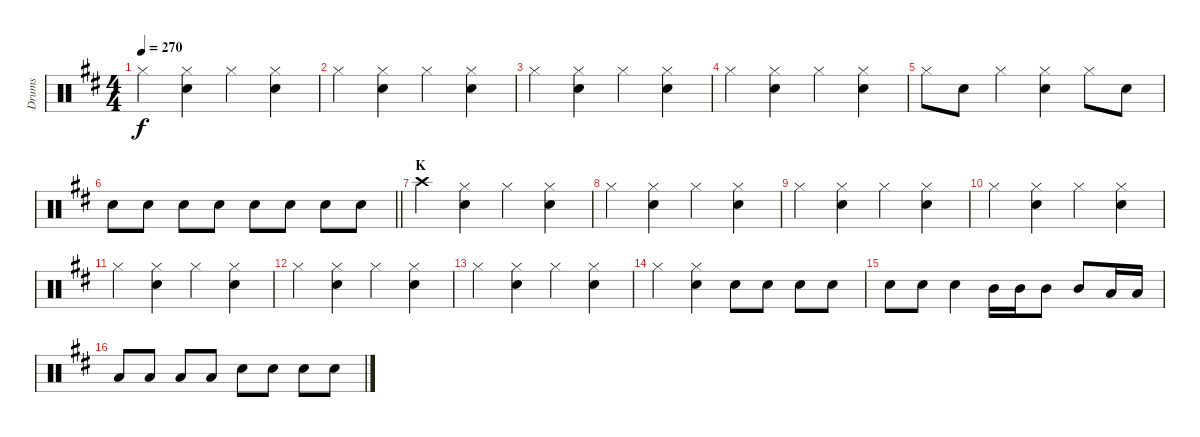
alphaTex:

\track ("Drums" "Drums") {instrument percussion}
\staff {score}
\articulation defaults
\ts (4 4)
\tempo 270
\clef neutral
\ks d "Hi-Hat (closed)".4{dy f}
("Hi-Hat (closed)" "Snare (hit) 2").4 "Hi-Hat (closed)".4 ("Hi-Hat (closed)" "Snare (hit) 2").4 |
"Hi-Hat (closed)".4 ("Hi-Hat (closed)" "Snare (hit) 2").4 "Hi-Hat (closed)".4 ("Hi-Hat (closed)" "Snare (hit) 2").4 |
"Hi-Hat (closed)".4 ("Hi-Hat (closed)" "Snare (hit) 2").4 "Hi-Hat (closed)".4 ("Hi-Hat (closed)" "Snare (hit) 2").4 |
"Hi-Hat (closed)".4 ("Hi-Hat (closed)" "Snare (hit) 2").4 "Hi-Hat (closed)".4 ("Hi-Hat (closed)" "Snare (hit) 2").4 |
"Hi-Hat (closed)".8 "Snare (hit) 2".8 "Hi-Hat (closed)".4 ("Hi-Hat (closed)" "Snare (hit) 2").4 "Hi-Hat (closed)".8 "Snare (hit) 2".8 |
\barLineRight lightlight "Snare (hit) 2".8 "Snare (hit) 2".8 "Snare (hit) 2".8 "Snare (hit) 2".8 "Snare (hit) 2".8 "Snare (hit) 2".8 "Snare (hit) 2".8 "Snare (hit) 2".8
|
\section ("" "K")
"Crash high (hit)".4 ("Hi-Hat (closed)" "Snare (hit) 2").4 "Hi-Hat (closed)".4 ("Hi-Hat (closed)" "Snare (hit) 2").4 |
"Hi-Hat (closed)".4 ("Hi-Hat (closed)" "Snare (hit) 2").4 "Hi-Hat (closed)".4 ("Hi-Hat (closed)" "Snare (hit) 2").4 |
"Hi-Hat (closed)".4 ("Hi-Hat (closed)" "Snare (hit) 2").4 "Hi-Hat (closed)".4 ("Hi-Hat (closed)" "Snare (hit) 2").4 |
"Hi-Hat (closed)".4 ("Hi-Hat (closed)" "Snare (hit) 2").4 "Hi-Hat (closed)".4 ("Hi-Hat (closed)" "Snare (hit) 2").4 |
"Hi-Hat (closed)".4 ("Hi-Hat (closed)" "Snare (hit) 2").4 "Hi-Hat (closed)".4 ("Hi-Hat (closed)" "Snare (hit) 2").4 |
"Hi-Hat (closed)".4 ("Hi-Hat (closed)" "Snare (hit) 2").4 "Hi-Hat (closed)".4 ("Hi-Hat (closed)" "Snare (hit) 2").4 |
"Hi-Hat (closed)".4 ("Hi-Hat (closed)" "Snare (hit) 2").4 "Hi-Hat (closed)".4 ("Hi-Hat (closed)" "Snare (hit) 2").4 |
"Hi-Hat (closed)".4 ("Hi-Hat (closed)" "Snare (hit) 2").4 "Snare (hit) 2".8 "Snare (hit) 2".8 "Snare (hit) 2".8 "Snare (hit) 2".8 |
"Snare (hit) 2".8 "Snare (hit) 2".8 "Snare (hit) 2".4 "Mid Tom (hit)".16 "Mid Tom (hit)".16 "Mid Tom (hit)".8 "Mid Tom (hit)".8 "Low Tom (hit)".16 "Low Tom (hit)".16 |
"Low Tom (hit)".8 "Low Tom (hit)".8 "Low Tom (hit)".8 "Low Tom (hit)".8 "Snare (hit) 2".8 "Snare (hit) 2".8 "Snare (hit) 2".8 "Snare (hit) 2".8
